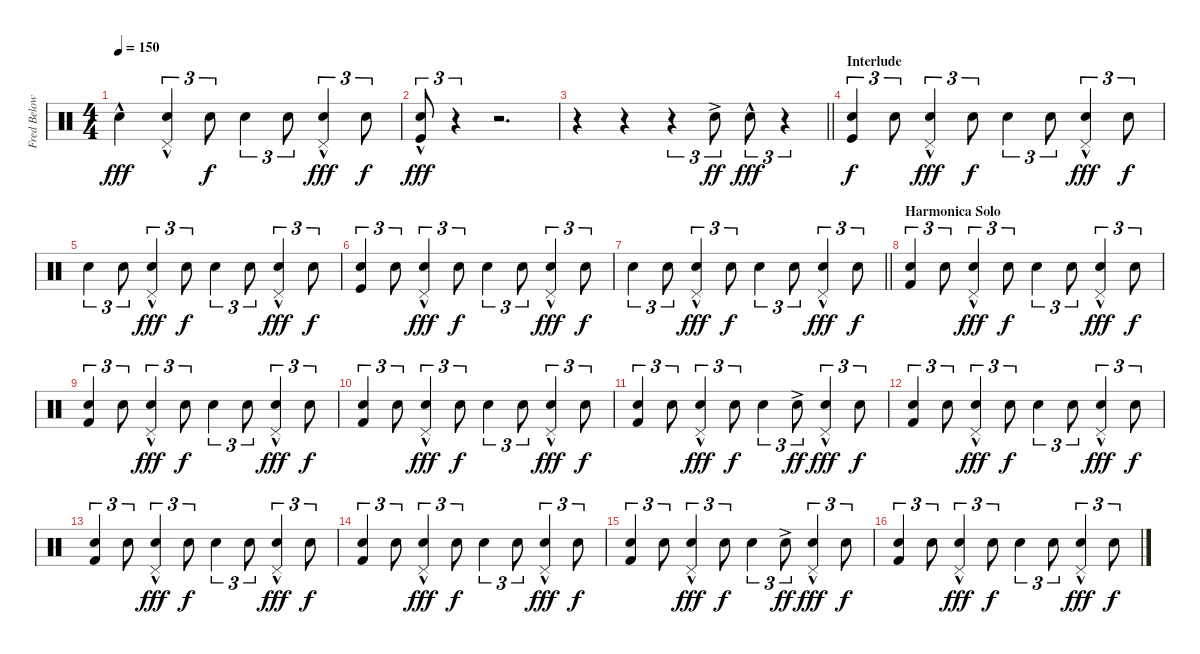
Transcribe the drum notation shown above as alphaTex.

\track ("Fred Below" "Fred Below") {instrument percussion}
\staff {score}
\articulation defaults
\ts (4 4)
\tempo 150
\clef neutral
\ks c "Snare (hit) 2"{hac}.4{dy fff}
("Snare (hit) 2"{hac} "Pedal Hi-Hat (hit)").4{tu (3 2)} "Snare (hit) 2".8{tu (3 2) dy f} "Electric Snare (hit)".4{tu (3 2)} "Snare (hit) 2".8{tu (3 2)} ("Hand Clap (hit)"{hac} "Pedal Hi-Hat (hit)").4{tu (3 2) dy fff} "Snare (hit) 2".8{tu (3 2) dy f} |
("Hand Clap (hit)"{hac} "Kick (hit)").8{tu (3 2) dy fff} r.4{tu (3 2)} r.2{d} |
\barLineRight lightlight
r.4 r.4 r.4{tu (3 2)} "Snare (hit) 2"{ac}.8{tu (3 2) dy ff} "Hand Clap (hit)"{hac}.8{tu (3 2) dy fff} r.4{tu (3 2)} |
\section ("" "Interlude")
("Snare (hit) 2" "Kick (hit)").4{tu (3 2) dy f} "Snare (hit) 2".8{tu (3 2)} ("Snare (hit) 2"{hac} "Pedal Hi-Hat (hit)").4{tu (3 2) dy fff} "Snare (hit) 2".8{tu (3 2) dy f} "Snare (hit) 2".4{tu (3 2)} "Snare (hit) 2".8{tu (3 2)} ("Hand Clap (hit)"{hac} "Pedal Hi-Hat (hit)").4{tu (3 2) dy fff} "Snare (hit) 2".8{tu (3 2) dy f} |
"Snare (hit) 2".4{tu (3 2)} "Snare (hit) 2".8{tu (3 2)} ("Snare (hit) 2"{hac} "Pedal Hi-Hat (hit)").4{tu (3 2) dy fff} "Snare (hit) 2".8{tu (3 2) dy f} "Snare (hit) 2".4{tu (3 2)} "Snare (hit) 2".8{tu (3 2)} ("Hand Clap (hit)"{hac} "Pedal Hi-Hat (hit)").4{tu (3 2) dy fff} "Snare (hit) 2".8{tu (3 2) dy f} |
("Snare (hit) 2" "Kick (hit)").4{tu (3 2)} "Snare (hit) 2".8{tu (3 2)} ("Snare (hit) 2"{hac} "Pedal Hi-Hat (hit)").4{tu (3 2) dy fff} "Snare (hit) 2".8{tu (3 2) dy f} "Snare (hit) 2".4{tu (3 2)} "Snare (hit) 2".8{tu (3 2)} ("Hand Clap (hit)"{hac} "Pedal Hi-Hat (hit)").4{tu (3 2) dy fff} "Snare (hit) 2".8{tu (3 2) dy f} |
\barLineRight lightlight "Snare (hit) 2".4{tu (3 2)} "Snare (hit) 2".8{tu (3 2)}
("Snare (hit) 2"{hac} "Pedal Hi-Hat (hit)").4{tu (3 2) dy fff} "Snare (hit) 2".8{tu (3 2) dy f} "Snare (hit) 2".4{tu (3 2)} "Snare (hit) 2".8{tu (3 2)} ("Hand Clap (hit)"{hac} "Pedal Hi-Hat (hit)").4{tu (3 2) dy fff} "Snare (hit) 2".8{tu (3 2) dy f} |
\section ("" "Harmonica Solo")
("Snare (hit) 2" "Kick (hit) 2").4{tu (3 2)} "Snare (hit) 2".8{tu (3 2)} ("Snare (hit) 2"{hac} "Pedal Hi-Hat (hit)").4{tu (3 2) dy fff} "Snare (hit) 2".8{tu (3 2) dy f} "Snare (hit) 2".4{tu (3 2)} "Snare (hit) 2".8{tu (3 2)} ("Hand Clap (hit)"{hac} "Pedal Hi-Hat (hit)").4{tu (3 2) dy fff} "Snare (hit) 2".8{tu (3 2) dy f} |
("Snare (hit) 2" "Kick (hit) 2").4{tu (3 2)} "Snare (hit) 2".8{tu (3 2)} ("Snare (hit) 2"{hac} "Pedal Hi-Hat (hit)").4{tu (3 2) dy fff} "Snare (hit) 2".8{tu (3 2) dy f} "Snare (hit) 2".4{tu (3 2)} "Snare (hit) 2".8{tu (3 2)} ("Hand Clap (hit)"{hac} "Pedal Hi-Hat (hit)").4{tu (3 2) dy fff} "Snare (hit) 2".8{tu (3 2) dy f} |
("Snare (hit) 2" "Kick (hit) 2").4{tu (3 2)} "Snare (hit) 2".8{tu (3 2)} ("Snare (hit) 2"{hac} "Pedal Hi-Hat (hit)").4{tu (3 2) dy fff} "Snare (hit) 2".8{tu (3 2) dy f} "Snare (hit) 2".4{tu (3 2)} "Snare (hit) 2".8{tu (3 2)} ("Hand Clap (hit)"{hac} "Pedal Hi-Hat (hit)").4{tu (3 2) dy fff} "Snare (hit) 2".8{tu (3 2) dy f} |
("Snare (hit) 2" "Kick (hit) 2").4{tu (3 2)} "Snare (hit) 2".8{tu (3 2)} ("Snare (hit) 2"{hac} "Pedal Hi-Hat (hit)").4{tu (3 2) dy fff} "Snare (hit) 2".8{tu (3 2) dy f} "Snare (hit) 2".4{tu (3 2)} "Hand Clap (hit)"{ac}.8{tu (3 2) dy ff} ("Hand Clap (hit)"{hac} "Pedal Hi-Hat (hit)").4{tu (3 2) dy fff} "Snare (hit) 2".8{tu (3 2) dy f} |
("Snare (hit) 2" "Kick (hit) 2").4{tu (3 2)} "Snare (hit) 2".8{tu (3 2)} ("Snare (hit) 2"{hac} "Pedal Hi-Hat (hit)").4{tu (3 2) dy fff} "Snare (hit) 2".8{tu (3 2) dy f} "Snare (hit) 2".4{tu (3 2)} "Snare (hit) 2".8{tu (3 2)} ("Hand Clap (hit)"{hac} "Pedal Hi-Hat (hit)").4{tu (3 2) dy fff} "Snare (hit) 2".8{tu (3 2) dy f} |
("Snare (hit) 2" "Kick (hit) 2").4{tu (3 2)} "Snare (hit) 2".8{tu (3 2)} ("Snare (hit) 2"{hac} "Pedal Hi-Hat (hit)").4{tu (3 2) dy fff} "Snare (hit) 2".8{tu (3 2) dy f} "Snare (hit) 2".4{tu (3 2)} "Snare (hit) 2".8{tu (3 2)} ("Hand Clap (hit)"{hac} "Pedal Hi-Hat (hit)").4{tu (3 2) dy fff} "Snare (hit) 2".8{tu (3 2) dy f} |
("Snare (hit) 2" "Kick (hit) 2").4{tu (3 2)} "Snare (hit) 2".8{tu (3 2)} ("Snare (hit) 2"{hac} "Pedal Hi-Hat (hit)").4{tu (3 2) dy fff} "Snare (hit) 2".8{tu (3 2) dy f} "Snare (hit) 2".4{tu (3 2)} "Snare (hit) 2".8{tu (3 2)} ("Hand Clap (hit)"{hac} "Pedal Hi-Hat (hit)").4{tu (3 2) dy fff} "Snare (hit) 2".8{tu (3 2) dy f} |
("Snare (hit) 2" "Kick (hit) 2").4{tu (3 2)} "Snare (hit) 2".8{tu (3 2)} ("Snare (hit) 2"{hac} "Pedal Hi-Hat (hit)").4{tu (3 2) dy fff} "Snare (hit) 2".8{tu (3 2) dy f} "Snare (hit) 2".4{tu (3 2)} "Hand Clap (hit)"{ac}.8{tu (3 2) dy ff} ("Hand Clap (hit)"{hac} "Pedal Hi-Hat (hit)").4{tu (3 2) dy fff} "Snare (hit) 2".8{tu (3 2) dy f} |
("Snare (hit) 2" "Kick (hit) 2").4{tu (3 2)} "Snare (hit) 2".8{tu (3 2)} ("Snare (hit) 2"{hac} "Pedal Hi-Hat (hit)").4{tu (3 2) dy fff} "Snare (hit) 2".8{tu (3 2) dy f} "Snare (hit) 2".4{tu (3 2)} "Snare (hit) 2".8{tu (3 2)} ("Hand Clap (hit)"{hac} "Pedal Hi-Hat (hit)").4{tu (3 2) dy fff} "Snare (hit) 2".8{tu (3 2) dy f}
